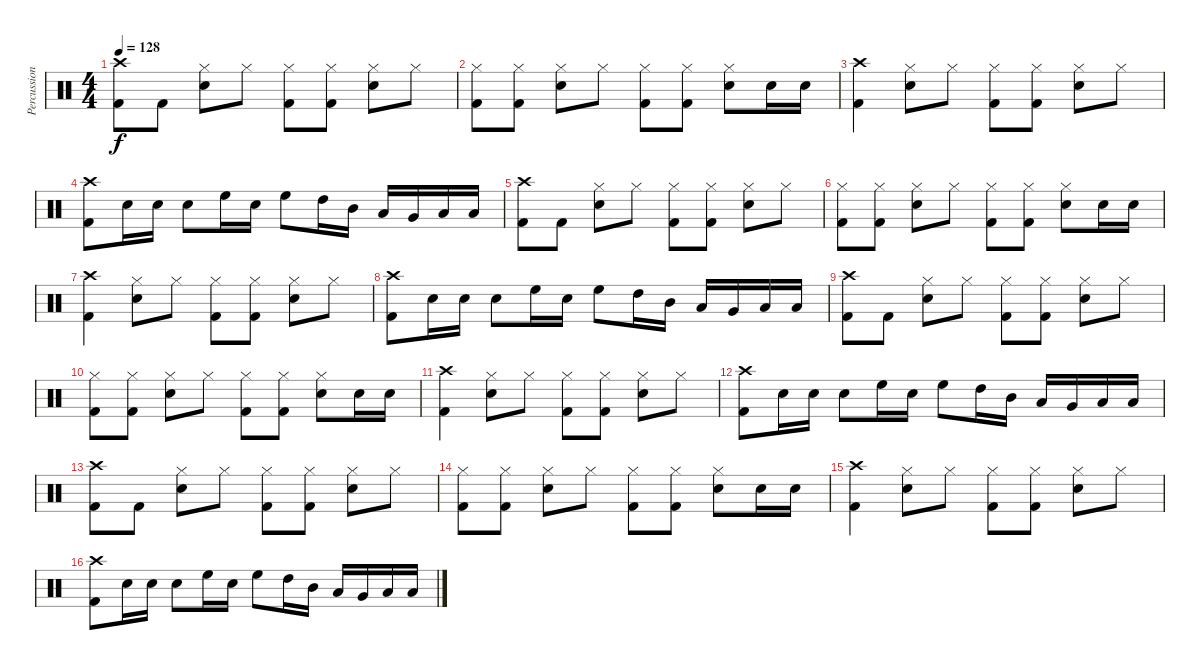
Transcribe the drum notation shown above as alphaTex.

\track ("Percussion" "Percussion") {instrument percussion}
\staff {score}
\articulation defaults
\ts (4 4)
\tempo 128
\clef neutral
\ks c
("Kick (hit) 2" "Crash high (hit)").8{dy f} "Kick (hit) 2".8 ("Snare (hit) 2" "Hi-Hat (closed)").8 "Hi-Hat (closed)".8 ("Kick (hit) 2" "Hi-Hat (closed)").8 ("Kick (hit) 2" "Hi-Hat (closed)").8 ("Snare (hit) 2" "Hi-Hat (closed)").8 "Hi-Hat (closed)".8 |
("Kick (hit) 2" "Hi-Hat (closed)").8 ("Kick (hit) 2" "Hi-Hat (closed)").8 ("Snare (hit) 2" "Hi-Hat (closed)").8 "Hi-Hat (closed)".8 ("Kick (hit) 2" "Hi-Hat (closed)").8 ("Kick (hit) 2" "Hi-Hat (closed)").8 ("Snare (hit) 2" "Hi-Hat (closed)").8 "Snare (hit) 2".16 "Snare (hit) 2".16 |
("Kick (hit) 2" "Crash high (hit)").4 ("Snare (hit) 2" "Hi-Hat (closed)").8 "Hi-Hat (closed)".8 ("Kick (hit) 2" "Hi-Hat (closed)").8 ("Kick (hit) 2" "Hi-Hat (closed)").8 ("Snare (hit) 2" "Hi-Hat (closed)").8 "Hi-Hat (closed)".8 |
("Kick (hit) 2" "Crash high (hit)").8 "Snare (hit) 2".16 "Snare (hit) 2".16 "Snare (hit) 2".8 "High Floor Tom (hit)".16 "Snare (hit) 2".16 "High Floor Tom (hit)".8 "High Tom (hit)".16 "Mid Tom (hit)".16 "Low Tom (hit)".16 "Very Low Tom (hit)".16 "Low Floor Tom (hit)".16 "Low Floor Tom (hit)".16 |
("Kick (hit) 2" "Crash high (hit)").8 "Kick (hit) 2".8 ("Snare (hit) 2" "Hi-Hat (closed)").8 "Hi-Hat (closed)".8 ("Kick (hit) 2" "Hi-Hat (closed)").8 ("Kick (hit) 2" "Hi-Hat (closed)").8 ("Snare (hit) 2" "Hi-Hat (closed)").8 "Hi-Hat (closed)".8 |
("Kick (hit) 2" "Hi-Hat (closed)").8 ("Kick (hit) 2" "Hi-Hat (closed)").8 ("Snare (hit) 2" "Hi-Hat (closed)").8 "Hi-Hat (closed)".8 ("Kick (hit) 2" "Hi-Hat (closed)").8 ("Kick (hit) 2" "Hi-Hat (closed)").8 ("Snare (hit) 2" "Hi-Hat (closed)").8 "Snare (hit) 2".16 "Snare (hit) 2".16 |
("Kick (hit) 2" "Crash high (hit)").4 ("Snare (hit) 2" "Hi-Hat (closed)").8 "Hi-Hat (closed)".8 ("Kick (hit) 2" "Hi-Hat (closed)").8 ("Kick (hit) 2" "Hi-Hat (closed)").8 ("Snare (hit) 2" "Hi-Hat (closed)").8 "Hi-Hat (closed)".8 |
("Kick (hit) 2" "Crash high (hit)").8 "Snare (hit) 2".16 "Snare (hit) 2".16 "Snare (hit) 2".8 "High Floor Tom (hit)".16 "Snare (hit) 2".16 "High Floor Tom (hit)".8 "High Tom (hit)".16 "Mid Tom (hit)".16 "Low Tom (hit)".16 "Very Low Tom (hit)".16 "Low Floor Tom (hit)".16 "Low Floor Tom (hit)".16 |
("Kick (hit) 2" "Crash high (hit)").8 "Kick (hit) 2".8 ("Snare (hit) 2" "Hi-Hat (closed)").8 "Hi-Hat (closed)".8 ("Kick (hit) 2" "Hi-Hat (closed)").8 ("Kick (hit) 2" "Hi-Hat (closed)").8 ("Snare (hit) 2" "Hi-Hat (closed)").8 "Hi-Hat (closed)".8 |
("Kick (hit) 2" "Hi-Hat (closed)").8 ("Kick (hit) 2" "Hi-Hat (closed)").8 ("Snare (hit) 2" "Hi-Hat (closed)").8 "Hi-Hat (closed)".8 ("Kick (hit) 2" "Hi-Hat (closed)").8 ("Kick (hit) 2" "Hi-Hat (closed)").8 ("Snare (hit) 2" "Hi-Hat (closed)").8 "Snare (hit) 2".16 "Snare (hit) 2".16 |
("Kick (hit) 2" "Crash high (hit)").4 ("Snare (hit) 2" "Hi-Hat (closed)").8 "Hi-Hat (closed)".8 ("Kick (hit) 2" "Hi-Hat (closed)").8 ("Kick (hit) 2" "Hi-Hat (closed)").8 ("Snare (hit) 2" "Hi-Hat (closed)").8 "Hi-Hat (closed)".8 |
("Kick (hit) 2" "Crash high (hit)").8 "Snare (hit) 2".16 "Snare (hit) 2".16 "Snare (hit) 2".8 "High Floor Tom (hit)".16 "Snare (hit) 2".16 "High Floor Tom (hit)".8 "High Tom (hit)".16 "Mid Tom (hit)".16 "Low Tom (hit)".16 "Very Low Tom (hit)".16 "Low Floor Tom (hit)".16 "Low Floor Tom (hit)".16 |
("Kick (hit) 2" "Crash high (hit)").8 "Kick (hit) 2".8 ("Snare (hit) 2" "Hi-Hat (closed)").8 "Hi-Hat (closed)".8 ("Kick (hit) 2" "Hi-Hat (closed)").8 ("Kick (hit) 2" "Hi-Hat (closed)").8 ("Snare (hit) 2" "Hi-Hat (closed)").8 "Hi-Hat (closed)".8 |
("Kick (hit) 2" "Hi-Hat (closed)").8 ("Kick (hit) 2" "Hi-Hat (closed)").8 ("Snare (hit) 2" "Hi-Hat (closed)").8 "Hi-Hat (closed)".8 ("Kick (hit) 2" "Hi-Hat (closed)").8 ("Kick (hit) 2" "Hi-Hat (closed)").8 ("Snare (hit) 2" "Hi-Hat (closed)").8 "Snare (hit) 2".16 "Snare (hit) 2".16 |
("Kick (hit) 2" "Crash high (hit)").4 ("Snare (hit) 2" "Hi-Hat (closed)").8 "Hi-Hat (closed)".8 ("Kick (hit) 2" "Hi-Hat (closed)").8 ("Kick (hit) 2" "Hi-Hat (closed)").8 ("Snare (hit) 2" "Hi-Hat (closed)").8 "Hi-Hat (closed)".8 |
("Kick (hit) 2" "Crash high (hit)").8 "Snare (hit) 2".16 "Snare (hit) 2".16 "Snare (hit) 2".8 "High Floor Tom (hit)".16 "Snare (hit) 2".16 "High Floor Tom (hit)".8 "High Tom (hit)".16 "Mid Tom (hit)".16 "Low Tom (hit)".16 "Very Low Tom (hit)".16 "Low Floor Tom (hit)".16 "Low Floor Tom (hit)".16
